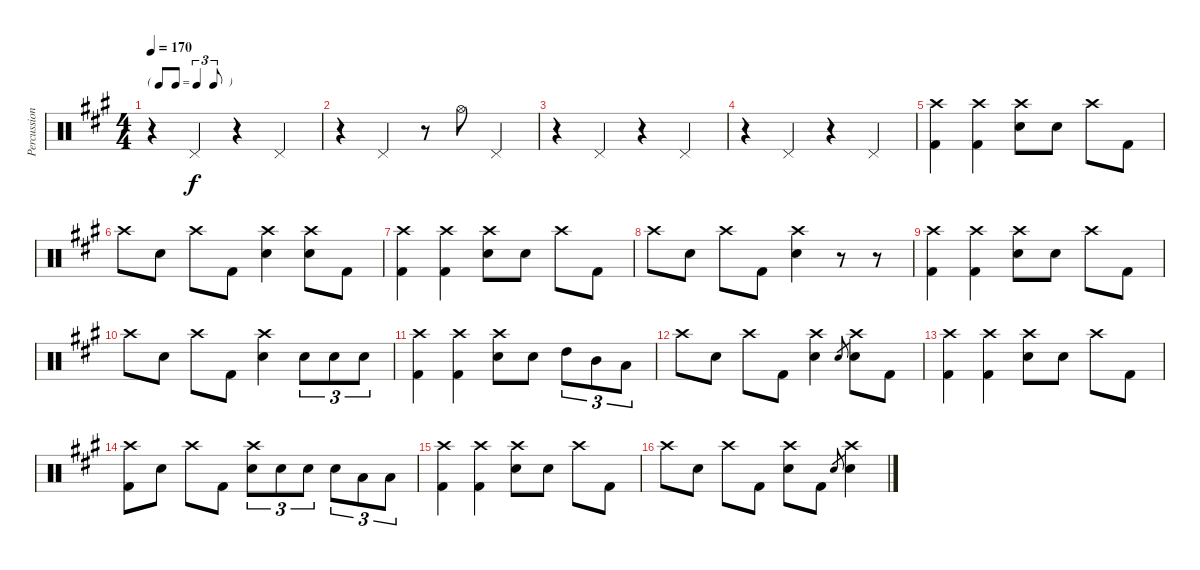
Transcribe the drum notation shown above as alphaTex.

\track ("Percussion" "Percussion") {instrument percussion}
\staff {score}
\articulation defaults
\ts (4 4)
\tf triplet8th
\tempo 170
\clef neutral
\ks a
r.4{dy f} "Pedal Hi-Hat (hit)".4 r.4 "Pedal Hi-Hat (hit)".4 |
r.4 "Pedal Hi-Hat (hit)".4 r.8 "Hi-Hat (open)".8 "Pedal Hi-Hat (hit)".4 |
r.4 "Pedal Hi-Hat (hit)".4 r.4 "Pedal Hi-Hat (hit)".4 |
r.4 "Pedal Hi-Hat (hit)".4 r.4 "Pedal Hi-Hat (hit)".4 |
("Crash high (hit)" "Kick (hit) 2").4 ("Crash high (hit)" "Kick (hit) 2").4 ("Crash high (hit)" "Electric Snare (hit)").8 "Electric Snare (hit)".8 "Crash high (hit)".8 "Kick (hit) 2".8 |
"Crash high (hit)".8 "Electric Snare (hit)".8 "Crash high (hit)".8 "Kick (hit) 2".8 ("Crash high (hit)" "Electric Snare (hit)").4 ("Crash high (hit)" "Electric Snare (hit)").8 "Kick (hit) 2".8 |
("Crash high (hit)" "Kick (hit) 2").4 ("Crash high (hit)" "Kick (hit) 2").4 ("Crash high (hit)" "Electric Snare (hit)").8 "Electric Snare (hit)".8 "Crash high (hit)".8 "Kick (hit) 2".8 |
"Crash high (hit)".8 "Electric Snare (hit)".8 "Crash high (hit)".8 "Kick (hit) 2".8 ("Crash high (hit)" "Electric Snare (hit)").4 r.8 r.8 |
("Crash high (hit)" "Kick (hit) 2").4 ("Crash high (hit)" "Kick (hit) 2").4 ("Crash high (hit)" "Electric Snare (hit)").8 "Electric Snare (hit)".8 "Crash high (hit)".8 "Kick (hit) 2".8 |
"Crash high (hit)".8 "Electric Snare (hit)".8 "Crash high (hit)".8 "Kick (hit) 2".8 ("Crash high (hit)" "Electric Snare (hit)").4 "Electric Snare (hit)".8{tu (3 2)} "Electric Snare (hit)".8{tu (3 2)} "Electric Snare (hit)".8{tu (3 2)} |
("Crash high (hit)" "Kick (hit) 2").4 ("Crash high (hit)" "Kick (hit) 2").4 ("Crash high (hit)" "Electric Snare (hit)").8 "Electric Snare (hit)".8 "High Tom (hit)".8{tu (3 2)} "Mid Tom (hit)".8{tu (3 2)} "Low Floor Tom (hit)".8{tu (3 2)} |
"Crash high (hit)".8 "Electric Snare (hit)".8 "Crash high (hit)".8 "Kick (hit) 2".8 ("Crash high (hit)" "Electric Snare (hit)").4 "Electric Snare (hit)".8{gr} ("Crash high (hit)" "Electric Snare (hit)").8 "Kick (hit) 2".8 |
("Crash high (hit)" "Kick (hit) 2").4 ("Crash high (hit)" "Kick (hit) 2").4 ("Crash high (hit)" "Electric Snare (hit)").8 "Electric Snare (hit)".8 "Crash high (hit)".8 "Kick (hit) 2".8 |
("Crash high (hit)" "Kick (hit) 2").8 "Electric Snare (hit)".8 "Crash high (hit)".8 "Kick (hit) 2".8 ("Crash high (hit)" "Electric Snare (hit)").8{tu (3 2)} "Electric Snare (hit)".8{tu (3 2)} "Electric Snare (hit)".8{tu (3 2)} "Electric Snare (hit)".8{tu (3 2)} "Low Tom (hit)".8{tu (3 2)} "Low Tom (hit)".8{tu (3 2)} |
("Crash high (hit)" "Kick (hit) 2").4 ("Crash high (hit)" "Kick (hit) 2").4 ("Crash high (hit)" "Electric Snare (hit)").8 "Electric Snare (hit)".8 "Crash high (hit)".8 "Kick (hit) 2".8 |
"Crash high (hit)".8 "Electric Snare (hit)".8 "Crash high (hit)".8 "Kick (hit) 2".8 ("Crash high (hit)" "Electric Snare (hit)").8 "Kick (hit) 2".8 "Electric Snare (hit)".8{gr} ("Crash high (hit)" "Electric Snare (hit)").4
